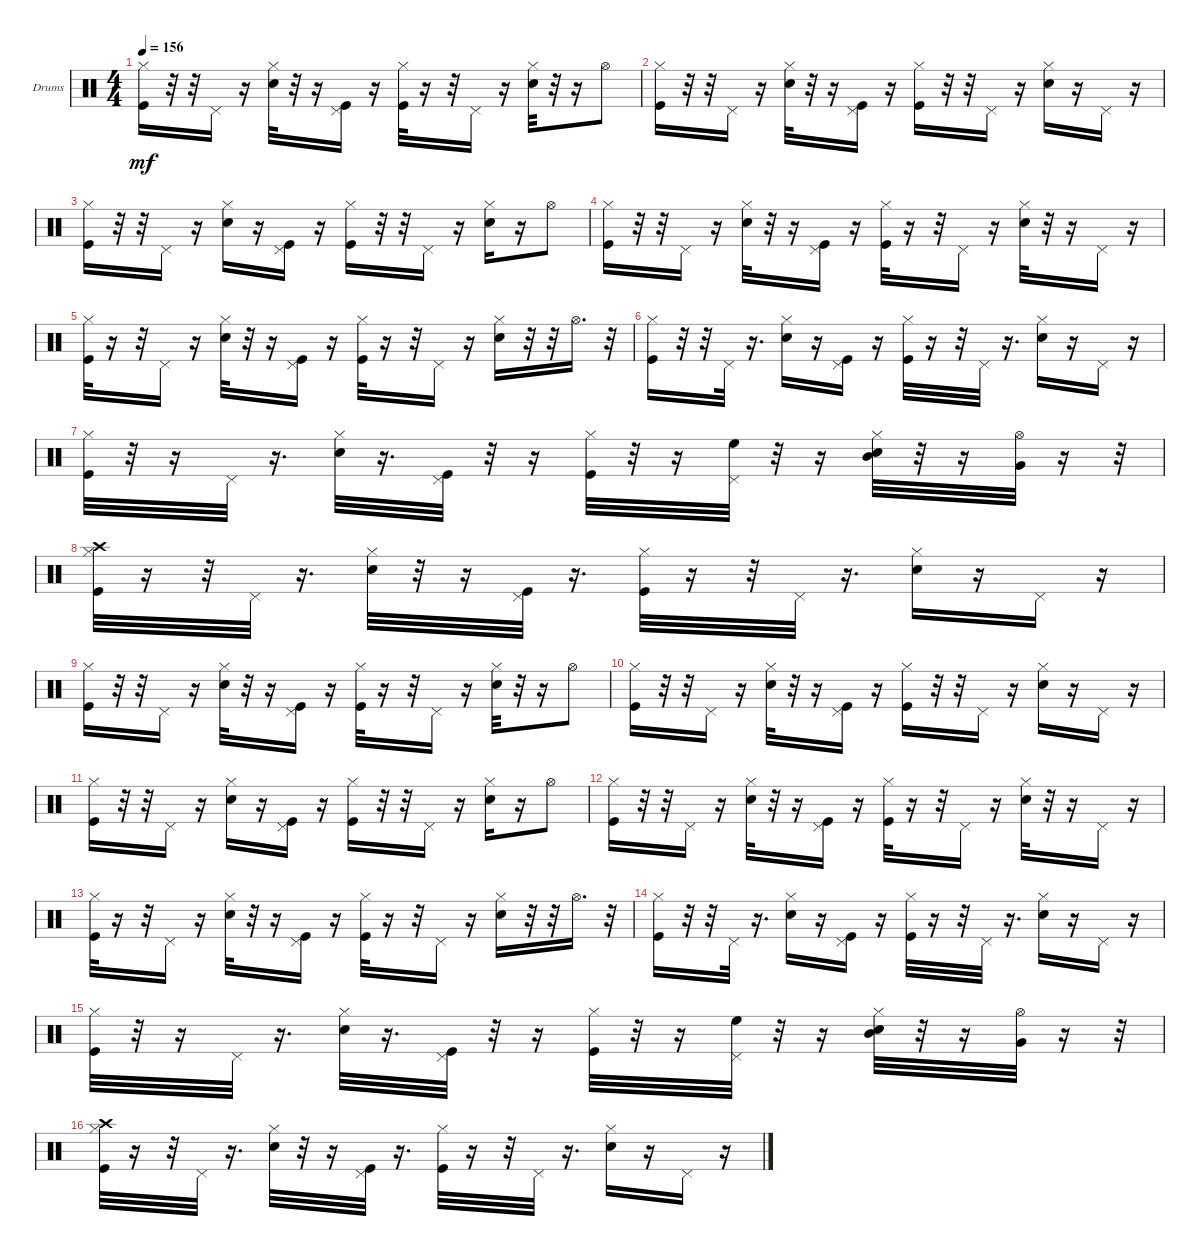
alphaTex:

\defaultSystemsLayout 4
\bracketExtendMode groupsimilarinstruments
\firstSystemTrackNameOrientation horizontal
\otherSystemsTrackNameOrientation horizontal
\track ("Drumkit" "Drums") {instrument percussion}
\staff {score}
\articulation defaults
\ts (4 4)
\tempo 156
\clef neutral
\ks c
("Kick (hit)" "Hi-Hat (closed)").16{dy mf} r.32 r.32 "Pedal Hi-Hat (hit)".16 r.16 ("Snare (hit) 2" "Hi-Hat (closed)").32 r.32 r.16 ("Kick (hit)" "Pedal Hi-Hat (hit)").16 r.16 ("Kick (hit)" "Hi-Hat (closed)").32 r.16 r.32 "Pedal Hi-Hat (hit)".16 r.16 ("Snare (hit) 2" "Hi-Hat (closed)").32 r.32 r.16 "Hi-Hat (open)".8 |
("Kick (hit)" "Hi-Hat (closed)").16 r.32 r.32 "Pedal Hi-Hat (hit)".16 r.16 ("Snare (hit) 2" "Hi-Hat (closed)").32 r.32 r.16 ("Kick (hit)" "Pedal Hi-Hat (hit)").16 r.16 ("Kick (hit)" "Hi-Hat (closed)").16 r.32 r.32 "Pedal Hi-Hat (hit)".16 r.16 ("Snare (hit) 2" "Hi-Hat (closed)").16 r.16 "Pedal Hi-Hat (hit)".16 r.16 |
("Kick (hit)" "Hi-Hat (closed)").16 r.32 r.32 "Pedal Hi-Hat (hit)".16 r.16 ("Snare (hit) 2" "Hi-Hat (closed)").16 r.16 ("Kick (hit)" "Pedal Hi-Hat (hit)").16 r.16 ("Kick (hit)" "Hi-Hat (closed)").16 r.32 r.32 "Pedal Hi-Hat (hit)".16 r.16 ("Snare (hit) 2" "Hi-Hat (closed)").16 r.16 "Hi-Hat (open)".8 |
("Kick (hit)" "Hi-Hat (closed)").16 r.32 r.32 "Pedal Hi-Hat (hit)".16 r.16 ("Snare (hit) 2" "Hi-Hat (closed)").32 r.32 r.16 ("Kick (hit)" "Pedal Hi-Hat (hit)").16 r.16 ("Kick (hit)" "Hi-Hat (closed)").32 r.16 r.32 "Pedal Hi-Hat (hit)".16 r.16 ("Snare (hit) 2" "Hi-Hat (closed)").32 r.32 r.16 "Pedal Hi-Hat (hit)".16 r.16 |
("Kick (hit)" "Hi-Hat (closed)").32 r.16 r.32 "Pedal Hi-Hat (hit)".16 r.16 ("Snare (hit) 2" "Hi-Hat (closed)").32 r.32 r.16 ("Kick (hit)" "Pedal Hi-Hat (hit)").16 r.16 ("Kick (hit)" "Hi-Hat (closed)").32 r.16 r.32 "Pedal Hi-Hat (hit)".16 r.16 ("Snare (hit) 2" "Hi-Hat (closed)").16 r.32 r.32 "Hi-Hat (open)".16{d} r.32 |
("Kick (hit)" "Hi-Hat (closed)").16 r.32 r.32 "Pedal Hi-Hat (hit)".32 r.16{d} ("Snare (hit) 2" "Hi-Hat (closed)").16 r.16 ("Kick (hit)" "Pedal Hi-Hat (hit)").16 r.16 ("Kick (hit)" "Hi-Hat (closed)").32 r.16 r.32 "Pedal Hi-Hat (hit)".32 r.16{d} ("Snare (hit) 2" "Hi-Hat (closed)").16 r.16 "Pedal Hi-Hat (hit)".16 r.16 |
("Kick (hit)" "Hi-Hat (closed)").32 r.32 r.16 "Pedal Hi-Hat (hit)".32 r.16{d} ("Snare (hit) 2" "Hi-Hat (closed)").32 r.16{d} ("Kick (hit)" "Pedal Hi-Hat (hit)").32 r.32 r.16 ("Kick (hit)" "Hi-Hat (closed)").32 r.32 r.16 ("Pedal Hi-Hat (hit)" "High Floor Tom (hit)").32 r.32 r.16 ("Snare (hit) 2" "Hi-Hat (closed)" "Mid Tom (hit)").32 r.32 r.16 ("Hi-Hat (open)" "Very Low Tom (hit)").32 r.16 r.32 |
("Kick (hit)" "Crash high (hit)" "Hi-Hat (closed)").32 r.16 r.32 "Pedal Hi-Hat (hit)".32 r.16{d} ("Snare (hit) 2" "Hi-Hat (closed)").32 r.32 r.16 ("Kick (hit)" "Pedal Hi-Hat (hit)").32 r.16{d} ("Kick (hit)" "Hi-Hat (closed)").32 r.16 r.32 "Pedal Hi-Hat (hit)".32 r.16{d} ("Snare (hit) 2" "Hi-Hat (closed)").16 r.16 "Pedal Hi-Hat (hit)".16 r.16 |
("Kick (hit)" "Hi-Hat (closed)").16 r.32 r.32 "Pedal Hi-Hat (hit)".16 r.16 ("Snare (hit) 2" "Hi-Hat (closed)").32 r.32 r.16 ("Kick (hit)" "Pedal Hi-Hat (hit)").16 r.16 ("Kick (hit)" "Hi-Hat (closed)").32 r.16 r.32 "Pedal Hi-Hat (hit)".16 r.16 ("Snare (hit) 2" "Hi-Hat (closed)").32 r.32 r.16 "Hi-Hat (open)".8 |
("Kick (hit)" "Hi-Hat (closed)").16 r.32 r.32 "Pedal Hi-Hat (hit)".16 r.16 ("Snare (hit) 2" "Hi-Hat (closed)").32 r.32 r.16 ("Kick (hit)" "Pedal Hi-Hat (hit)").16 r.16 ("Kick (hit)" "Hi-Hat (closed)").16 r.32 r.32 "Pedal Hi-Hat (hit)".16 r.16 ("Snare (hit) 2" "Hi-Hat (closed)").16 r.16 "Pedal Hi-Hat (hit)".16 r.16 |
("Kick (hit)" "Hi-Hat (closed)").16 r.32 r.32 "Pedal Hi-Hat (hit)".16 r.16 ("Snare (hit) 2" "Hi-Hat (closed)").16 r.16 ("Kick (hit)" "Pedal Hi-Hat (hit)").16 r.16 ("Kick (hit)" "Hi-Hat (closed)").16 r.32 r.32 "Pedal Hi-Hat (hit)".16 r.16 ("Snare (hit) 2" "Hi-Hat (closed)").16 r.16 "Hi-Hat (open)".8 |
("Kick (hit)" "Hi-Hat (closed)").16 r.32 r.32 "Pedal Hi-Hat (hit)".16 r.16 ("Snare (hit) 2" "Hi-Hat (closed)").32 r.32 r.16 ("Kick (hit)" "Pedal Hi-Hat (hit)").16 r.16 ("Kick (hit)" "Hi-Hat (closed)").32 r.16 r.32 "Pedal Hi-Hat (hit)".16 r.16 ("Snare (hit) 2" "Hi-Hat (closed)").32 r.32 r.16 "Pedal Hi-Hat (hit)".16 r.16 |
("Kick (hit)" "Hi-Hat (closed)").32 r.16 r.32 "Pedal Hi-Hat (hit)".16 r.16 ("Snare (hit) 2" "Hi-Hat (closed)").32 r.32 r.16 ("Kick (hit)" "Pedal Hi-Hat (hit)").16 r.16 ("Kick (hit)" "Hi-Hat (closed)").32 r.16 r.32 "Pedal Hi-Hat (hit)".16 r.16 ("Snare (hit) 2" "Hi-Hat (closed)").16 r.32 r.32 "Hi-Hat (open)".16{d} r.32 |
("Kick (hit)" "Hi-Hat (closed)").16 r.32 r.32 "Pedal Hi-Hat (hit)".32 r.16{d} ("Snare (hit) 2" "Hi-Hat (closed)").16 r.16 ("Kick (hit)" "Pedal Hi-Hat (hit)").16 r.16 ("Kick (hit)" "Hi-Hat (closed)").32 r.16 r.32 "Pedal Hi-Hat (hit)".32 r.16{d} ("Snare (hit) 2" "Hi-Hat (closed)").16 r.16 "Pedal Hi-Hat (hit)".16 r.16 |
("Kick (hit)" "Hi-Hat (closed)").32 r.32 r.16 "Pedal Hi-Hat (hit)".32 r.16{d} ("Snare (hit) 2" "Hi-Hat (closed)").32 r.16{d} ("Kick (hit)" "Pedal Hi-Hat (hit)").32 r.32 r.16 ("Kick (hit)" "Hi-Hat (closed)").32 r.32 r.16 ("Pedal Hi-Hat (hit)" "High Floor Tom (hit)").32 r.32 r.16 ("Snare (hit) 2" "Hi-Hat (closed)" "Mid Tom (hit)").32 r.32 r.16 ("Hi-Hat (open)" "Very Low Tom (hit)").32 r.16 r.32 |
("Kick (hit)" "Crash high (hit)" "Hi-Hat (closed)").32 r.16 r.32 "Pedal Hi-Hat (hit)".32 r.16{d} ("Snare (hit) 2" "Hi-Hat (closed)").32 r.32 r.16 ("Kick (hit)" "Pedal Hi-Hat (hit)").32 r.16{d} ("Kick (hit)" "Hi-Hat (closed)").32 r.16 r.32 "Pedal Hi-Hat (hit)".32 r.16{d} ("Snare (hit) 2" "Hi-Hat (closed)").16 r.16 "Pedal Hi-Hat (hit)".16 r.16
